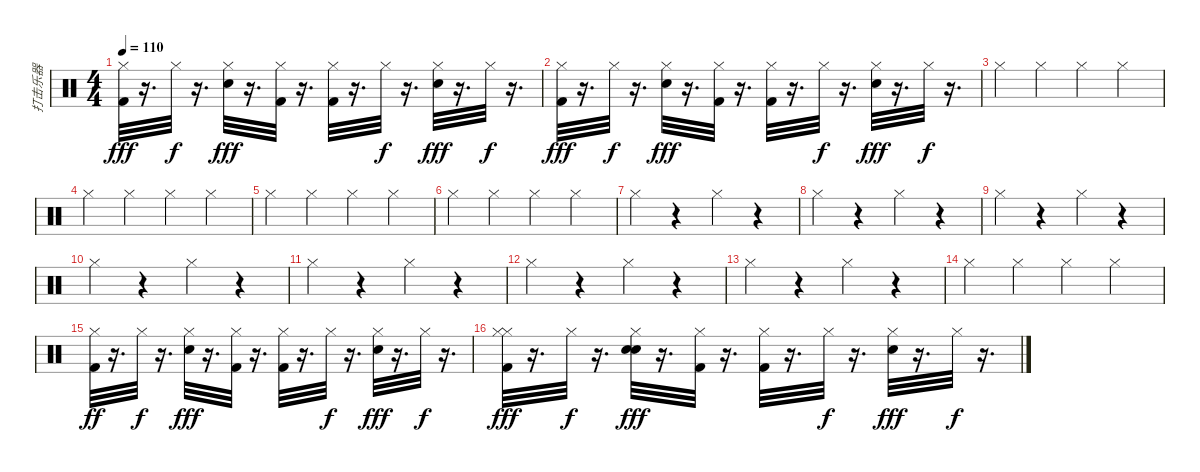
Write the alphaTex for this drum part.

\track ("打击乐器" "打击乐器") {instrument percussion}
\staff {score}
\articulation defaults
\ts (4 4)
\tempo 110
\clef neutral
\ks c
("Kick (hit) 2" "Hi-Hat (closed)").32{dy fff} r.16{d} "Hi-Hat (closed)".32{dy f} r.16{d} ("Hi-Hat (closed)" "Electric Snare (hit)").32{dy fff} r.16{d} ("Kick (hit) 2" "Hi-Hat (closed)").32 r.16{d} ("Kick (hit) 2" "Hi-Hat (closed)").32 r.16{d} "Hi-Hat (closed)".32{dy f} r.16{d} ("Hi-Hat (closed)" "Electric Snare (hit)").32{dy fff} r.16{d} "Hi-Hat (closed)".32{dy f} r.16{d} |
("Kick (hit) 2" "Hi-Hat (closed)").32{dy fff} r.16{d} "Hi-Hat (closed)".32{dy f} r.16{d} ("Hi-Hat (closed)" "Electric Snare (hit)").32{dy fff} r.16{d} ("Kick (hit) 2" "Hi-Hat (closed)").32 r.16{d} ("Kick (hit) 2" "Hi-Hat (closed)").32 r.16{d} "Hi-Hat (closed)".32{dy f} r.16{d} ("Hi-Hat (closed)" "Electric Snare (hit)").32{dy fff} r.16{d} "Hi-Hat (closed)".32{dy f} r.16{d} |
"Hi-Hat (closed)".4 "Hi-Hat (closed)".4 "Hi-Hat (closed)".4 "Hi-Hat (closed)".4 |
"Hi-Hat (closed)".4 "Hi-Hat (closed)".4 "Hi-Hat (closed)".4 "Hi-Hat (closed)".4 |
"Hi-Hat (closed)".4 "Hi-Hat (closed)".4 "Hi-Hat (closed)".4 "Hi-Hat (closed)".4 |
"Hi-Hat (closed)".4 "Hi-Hat (closed)".4 "Hi-Hat (closed)".4 "Hi-Hat (closed)".4 |
"Hi-Hat (closed)".4 r.4 "Hi-Hat (closed)".4 r.4 |
"Hi-Hat (closed)".4 r.4 "Hi-Hat (closed)".4 r.4 |
"Hi-Hat (closed)".4 r.4 "Hi-Hat (closed)".4 r.4 |
"Hi-Hat (closed)".4 r.4 "Hi-Hat (closed)".4 r.4 |
"Hi-Hat (closed)".4 r.4 "Hi-Hat (closed)".4 r.4 |
"Hi-Hat (closed)".4 r.4 "Hi-Hat (closed)".4 r.4 |
"Hi-Hat (closed)".4 r.4 "Hi-Hat (closed)".4 r.4 |
"Hi-Hat (closed)".4 "Hi-Hat (closed)".4 "Hi-Hat (closed)".4 "Hi-Hat (closed)".4 |
("Kick (hit) 2" "Hi-Hat (closed)").32{dy ff} r.16{d} "Hi-Hat (closed)".32{dy f} r.16{d} ("Hi-Hat (closed)" "Electric Snare (hit)").32{dy fff} r.16{d} ("Kick (hit) 2" "Hi-Hat (closed)").32 r.16{d} ("Kick (hit) 2" "Hi-Hat (closed)").32 r.16{d} "Hi-Hat (closed)".32{dy f} r.16{d} ("Hi-Hat (closed)" "Electric Snare (hit)").32{dy fff} r.16{d} "Hi-Hat (closed)".32{dy f} r.16{d} |
("Kick (hit) 2" "Hi-Hat (closed)" "Hi-Hat (closed)").32{dy fff} r.16{d} "Hi-Hat (closed)".32{dy f} r.16{d} ("Hi-Hat (closed)" "Electric Snare (hit)" "Hand Clap (hit)").32{dy fff} r.16{d} ("Kick (hit) 2" "Hi-Hat (closed)").32 r.16{d} ("Kick (hit) 2" "Hi-Hat (closed)").32 r.16{d} "Hi-Hat (closed)".32{dy f} r.16{d} ("Hi-Hat (closed)" "Electric Snare (hit)").32{dy fff} r.16{d} "Hi-Hat (closed)".32{dy f} r.16{d}
